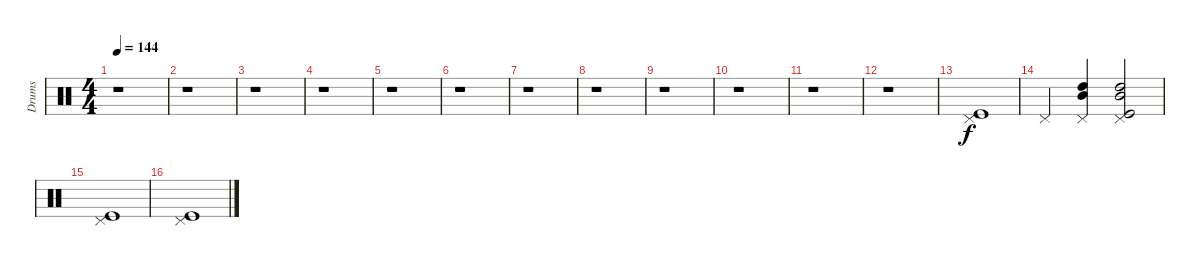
\track ("Drums" "Drums") {instrument percussion}
\staff {score}
\articulation defaults
\ts (4 4)
\tempo 144
\clef neutral
\ks c
r.1{dy f} |
r.1 |
r.1 |
r.1 |
r.1 |
r.1 |
r.1 |
r.1 |
r.1 |
r.1 |
r.1 |
r.1 |
("Pedal Hi-Hat (hit)" "Kick (hit)").1 |
"Pedal Hi-Hat (hit)".4 ("Pedal Hi-Hat (hit)" "High Tom (hit)" "Mid Tom (hit)").4 ("Pedal Hi-Hat (hit)" "High Tom (hit)" "Mid Tom (hit)" "Kick (hit)").2 |
("Pedal Hi-Hat (hit)" "Kick (hit)").1 |
("Pedal Hi-Hat (hit)" "Kick (hit)").1
